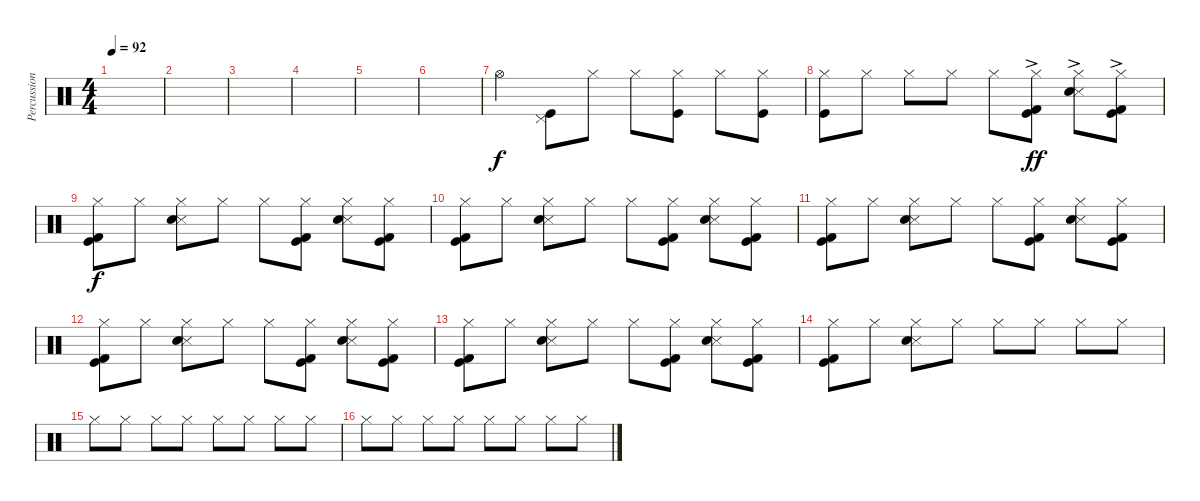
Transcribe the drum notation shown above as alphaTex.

\track ("Percussion" "Percussion") {instrument percussion}
\staff {score}
\articulation defaults
\ts (4 4)
\tempo 92
\clef neutral
\ks c
|
|
|
|
|
|
"Hi-Hat (open)".4 ("Pedal Hi-Hat (hit)" "Kick (hit)").8 "Hi-Hat (closed)".8 "Hi-Hat (closed)".8 ("Hi-Hat (closed)" "Kick (hit)").8 "Hi-Hat (closed)".8 ("Hi-Hat (closed)" "Kick (hit)").8 |
("Hi-Hat (closed)" "Kick (hit)").8 "Hi-Hat (closed)".8 "Hi-Hat (closed)".8 "Hi-Hat (closed)".8 "Hi-Hat (closed)".8 ("Hi-Hat (closed)" "Kick (hit)"{ac} "Kick (hit) 2"{ac}).8{dy ff} ("Hi-Hat (closed)" "Snare (side stick) 3"{ac} "Snare (hit) 2"{ac}).8 ("Hi-Hat (closed)" "Kick (hit)"{ac} "Kick (hit) 2"{ac}).8 |
("Hi-Hat (closed)" "Kick (hit)" "Kick (hit) 2").8{dy f} "Hi-Hat (closed)".8 ("Hi-Hat (closed)" "Snare (side stick) 3" "Snare (hit) 2").8 "Hi-Hat (closed)".8 "Hi-Hat (closed)".8 ("Hi-Hat (closed)" "Kick (hit)" "Kick (hit) 2").8 ("Hi-Hat (closed)" "Snare (side stick) 3" "Snare (hit) 2").8 ("Hi-Hat (closed)" "Kick (hit)" "Kick (hit) 2").8 |
("Hi-Hat (closed)" "Kick (hit)" "Kick (hit) 2").8 "Hi-Hat (closed)".8 ("Hi-Hat (closed)" "Snare (side stick) 3" "Snare (hit) 2").8 "Hi-Hat (closed)".8 "Hi-Hat (closed)".8 ("Hi-Hat (closed)" "Kick (hit)" "Kick (hit) 2").8 ("Hi-Hat (closed)" "Snare (side stick) 3" "Snare (hit) 2").8 ("Hi-Hat (closed)" "Kick (hit)" "Kick (hit) 2").8 |
("Hi-Hat (closed)" "Kick (hit)" "Kick (hit) 2").8 "Hi-Hat (closed)".8 ("Hi-Hat (closed)" "Snare (side stick) 3" "Snare (hit) 2").8 "Hi-Hat (closed)".8 "Hi-Hat (closed)".8 ("Hi-Hat (closed)" "Kick (hit)" "Kick (hit) 2").8 ("Hi-Hat (closed)" "Snare (side stick) 3" "Snare (hit) 2").8 ("Hi-Hat (closed)" "Kick (hit)" "Kick (hit) 2").8 |
("Hi-Hat (closed)" "Kick (hit)" "Kick (hit) 2").8 "Hi-Hat (closed)".8 ("Hi-Hat (closed)" "Snare (side stick) 3" "Snare (hit) 2").8 "Hi-Hat (closed)".8 "Hi-Hat (closed)".8 ("Hi-Hat (closed)" "Kick (hit)" "Kick (hit) 2").8 ("Hi-Hat (closed)" "Snare (side stick) 3" "Snare (hit) 2").8 ("Hi-Hat (closed)" "Kick (hit)" "Kick (hit) 2").8 |
("Hi-Hat (closed)" "Kick (hit)" "Kick (hit) 2").8 "Hi-Hat (closed)".8 ("Hi-Hat (closed)" "Snare (side stick) 3" "Snare (hit) 2").8 "Hi-Hat (closed)".8 "Hi-Hat (closed)".8 ("Hi-Hat (closed)" "Kick (hit)" "Kick (hit) 2").8 ("Hi-Hat (closed)" "Snare (side stick) 3" "Snare (hit) 2").8 ("Hi-Hat (closed)" "Kick (hit)" "Kick (hit) 2").8 |
("Hi-Hat (closed)" "Kick (hit)" "Kick (hit) 2").8 "Hi-Hat (closed)".8 ("Hi-Hat (closed)" "Snare (side stick) 3" "Snare (hit) 2").8 "Hi-Hat (closed)".8 "Hi-Hat (closed)".8 "Hi-Hat (closed)".8 "Hi-Hat (closed)".8 "Hi-Hat (closed)".8 |
"Hi-Hat (closed)".8 "Hi-Hat (closed)".8 "Hi-Hat (closed)".8 "Hi-Hat (closed)".8 "Hi-Hat (closed)".8 "Hi-Hat (closed)".8 "Hi-Hat (closed)".8 "Hi-Hat (closed)".8 |
"Hi-Hat (closed)".8 "Hi-Hat (closed)".8 "Hi-Hat (closed)".8 "Hi-Hat (closed)".8 "Hi-Hat (closed)".8 "Hi-Hat (closed)".8 "Hi-Hat (closed)".8 "Hi-Hat (closed)".8
